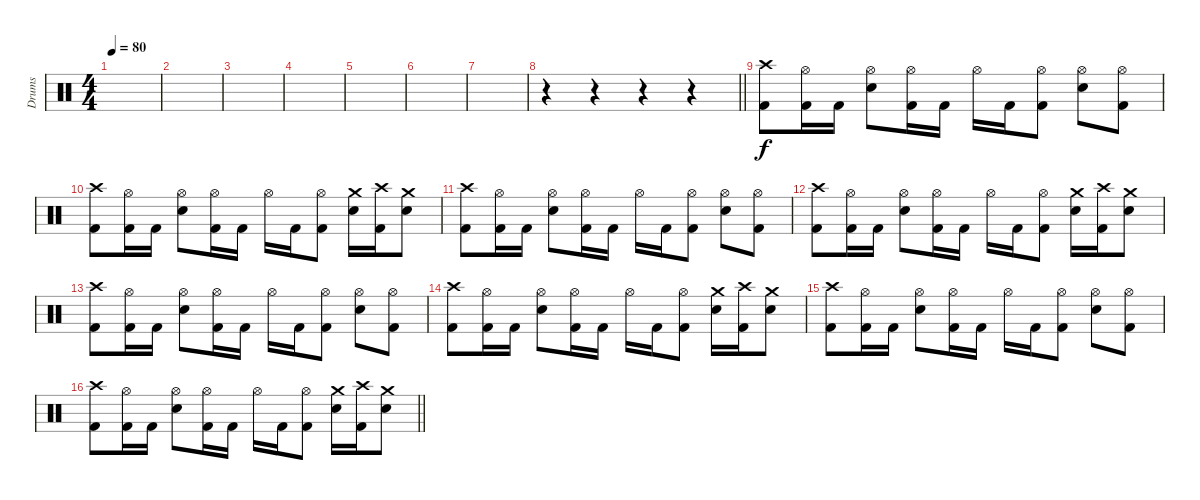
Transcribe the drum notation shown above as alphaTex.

\track ("Drums" "Drums") {instrument percussion}
\staff {score}
\articulation defaults
\ts (4 4)
\section ("" "")
\tempo 80
\clef neutral
\ks c
|
|
|
|
|
|
|
\barLineRight lightlight
r.4 r.4 r.4 r.4 |
\section ("" "")
("Kick (hit) 2" "Crash high (hit)").8 ("Kick (hit) 2" "Hi-Hat (open)").16 "Kick (hit) 2".16 ("Electric Snare (hit)" "Hi-Hat (open)").8 ("Kick (hit) 2" "Hi-Hat (open)").16 "Kick (hit) 2".16 "Hi-Hat (open)".16 "Kick (hit) 2".16 ("Kick (hit) 2" "Hi-Hat (open)").8 ("Electric Snare (hit)" "Hi-Hat (open)").8 ("Kick (hit) 2" "Hi-Hat (open)").8 |
("Kick (hit) 2" "Crash high (hit)").8 ("Kick (hit) 2" "Hi-Hat (open)").16 "Kick (hit) 2".16 ("Electric Snare (hit)" "Hi-Hat (open)").8 ("Kick (hit) 2" "Hi-Hat (open)").16 "Kick (hit) 2".16 "Hi-Hat (open)".16 "Kick (hit) 2".16 ("Kick (hit) 2" "Hi-Hat (open)").8 ("Electric Snare (hit)" "Crash medium (hit)").16 ("Kick (hit) 2" "Crash high (hit)").16 ("Electric Snare (hit)" "Crash medium (hit)").8 |
("Kick (hit) 2" "Crash high (hit)").8 ("Kick (hit) 2" "Hi-Hat (open)").16 "Kick (hit) 2".16 ("Electric Snare (hit)" "Hi-Hat (open)").8 ("Kick (hit) 2" "Hi-Hat (open)").16 "Kick (hit) 2".16 "Hi-Hat (open)".16 "Kick (hit) 2".16 ("Kick (hit) 2" "Hi-Hat (open)").8 ("Electric Snare (hit)" "Hi-Hat (open)").8 ("Kick (hit) 2" "Hi-Hat (open)").8 |
("Kick (hit) 2" "Crash high (hit)").8 ("Kick (hit) 2" "Hi-Hat (open)").16 "Kick (hit) 2".16 ("Electric Snare (hit)" "Hi-Hat (open)").8 ("Kick (hit) 2" "Hi-Hat (open)").16 "Kick (hit) 2".16 "Hi-Hat (open)".16 "Kick (hit) 2".16 ("Kick (hit) 2" "Hi-Hat (open)").8 ("Electric Snare (hit)" "Crash medium (hit)").16 ("Kick (hit) 2" "Crash high (hit)").16 ("Electric Snare (hit)" "Crash medium (hit)").8 |
("Kick (hit) 2" "Crash high (hit)").8 ("Kick (hit) 2" "Hi-Hat (open)").16 "Kick (hit) 2".16 ("Electric Snare (hit)" "Hi-Hat (open)").8 ("Kick (hit) 2" "Hi-Hat (open)").16 "Kick (hit) 2".16 "Hi-Hat (open)".16 "Kick (hit) 2".16 ("Kick (hit) 2" "Hi-Hat (open)").8 ("Electric Snare (hit)" "Hi-Hat (open)").8 ("Kick (hit) 2" "Hi-Hat (open)").8 |
("Kick (hit) 2" "Crash high (hit)").8 ("Kick (hit) 2" "Hi-Hat (open)").16 "Kick (hit) 2".16 ("Electric Snare (hit)" "Hi-Hat (open)").8 ("Kick (hit) 2" "Hi-Hat (open)").16 "Kick (hit) 2".16 "Hi-Hat (open)".16 "Kick (hit) 2".16 ("Kick (hit) 2" "Hi-Hat (open)").8 ("Electric Snare (hit)" "Crash medium (hit)").16 ("Kick (hit) 2" "Crash high (hit)").16 ("Electric Snare (hit)" "Crash medium (hit)").8 |
("Kick (hit) 2" "Crash high (hit)").8 ("Kick (hit) 2" "Hi-Hat (open)").16 "Kick (hit) 2".16 ("Electric Snare (hit)" "Hi-Hat (open)").8 ("Kick (hit) 2" "Hi-Hat (open)").16 "Kick (hit) 2".16 "Hi-Hat (open)".16 "Kick (hit) 2".16 ("Kick (hit) 2" "Hi-Hat (open)").8 ("Electric Snare (hit)" "Hi-Hat (open)").8 ("Kick (hit) 2" "Hi-Hat (open)").8 |
\barLineRight lightlight
("Kick (hit) 2" "Crash high (hit)").8 ("Kick (hit) 2" "Hi-Hat (open)").16 "Kick (hit) 2".16 ("Electric Snare (hit)" "Hi-Hat (open)").8 ("Kick (hit) 2" "Hi-Hat (open)").16 "Kick (hit) 2".16 "Hi-Hat (open)".16 "Kick (hit) 2".16 ("Kick (hit) 2" "Hi-Hat (open)").8 ("Electric Snare (hit)" "Crash medium (hit)").16 ("Kick (hit) 2" "Crash high (hit)").16 ("Electric Snare (hit)" "Crash medium (hit)").8
